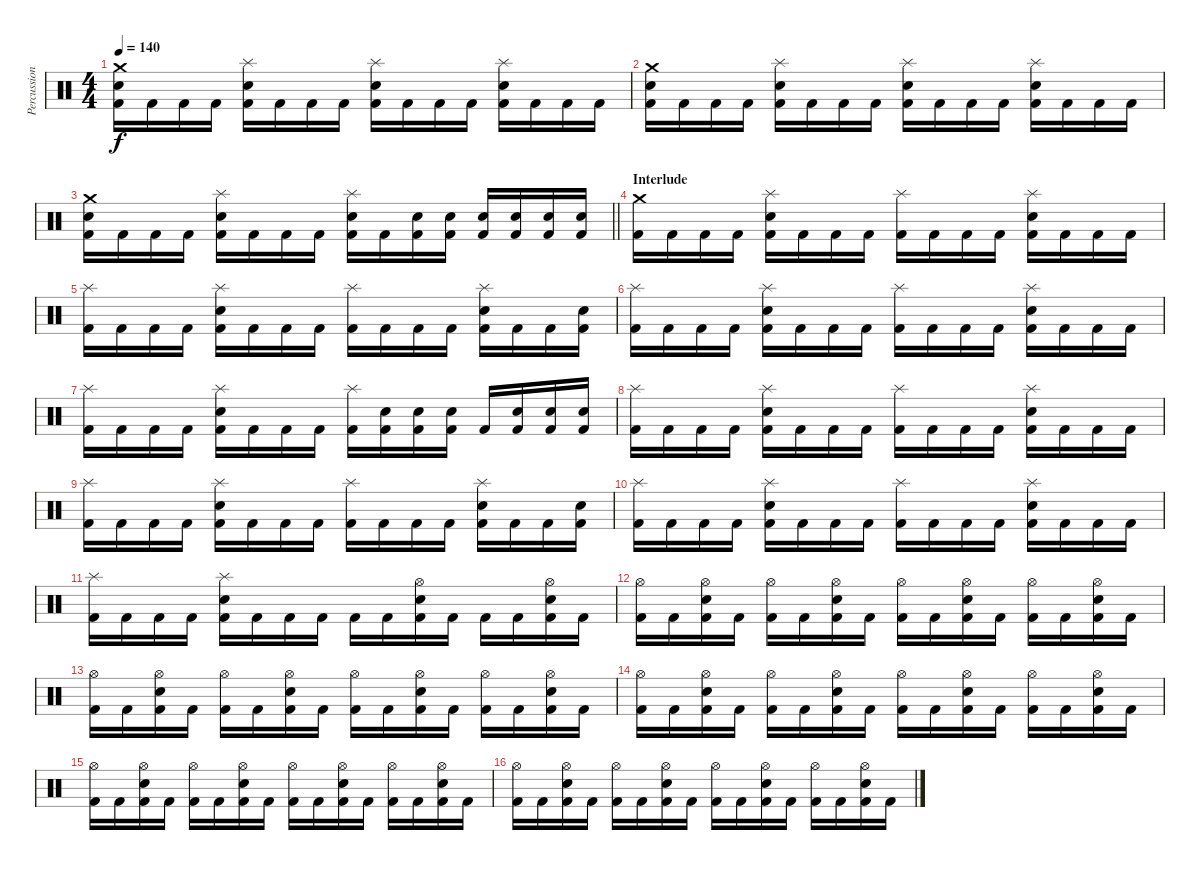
\track ("Percussion" "Percussion") {instrument percussion}
\staff {score}
\articulation defaults
\ts (4 4)
\tempo 140
\clef neutral
\ks c
("Kick (hit) 2" "Electric Snare (hit)" "Crash medium (hit)").16{dy f} "Kick (hit) 2".16 "Kick (hit) 2".16 "Kick (hit) 2".16 ("Kick (hit) 2" "Electric Snare (hit)" "Splash (hit)").16 "Kick (hit) 2".16 "Kick (hit) 2".16 "Kick (hit) 2".16 ("Kick (hit) 2" "Electric Snare (hit)" "Splash (hit)").16 "Kick (hit) 2".16 "Kick (hit) 2".16 "Kick (hit) 2".16 ("Kick (hit) 2" "Electric Snare (hit)" "Splash (hit)").16 "Kick (hit) 2".16 "Kick (hit) 2".16 "Kick (hit) 2".16 |
("Kick (hit) 2" "Electric Snare (hit)" "Crash medium (hit)").16 "Kick (hit) 2".16 "Kick (hit) 2".16 "Kick (hit) 2".16 ("Kick (hit) 2" "Electric Snare (hit)" "Splash (hit)").16 "Kick (hit) 2".16 "Kick (hit) 2".16 "Kick (hit) 2".16 ("Kick (hit) 2" "Electric Snare (hit)" "Splash (hit)").16 "Kick (hit) 2".16 "Kick (hit) 2".16 "Kick (hit) 2".16 ("Kick (hit) 2" "Electric Snare (hit)" "Splash (hit)").16 "Kick (hit) 2".16 "Kick (hit) 2".16 "Kick (hit) 2".16 |
\barLineRight lightlight
("Kick (hit) 2" "Electric Snare (hit)" "Crash medium (hit)").16 "Kick (hit) 2".16 "Kick (hit) 2".16 "Kick (hit) 2".16 ("Kick (hit) 2" "Electric Snare (hit)" "Splash (hit)").16 "Kick (hit) 2".16 "Kick (hit) 2".16 "Kick (hit) 2".16 ("Kick (hit) 2" "Electric Snare (hit)" "Splash (hit)").16 "Kick (hit) 2".16 ("Kick (hit) 2" "Electric Snare (hit)").16 ("Kick (hit) 2" "Electric Snare (hit)").16 ("Kick (hit) 2" "Electric Snare (hit)").16 ("Kick (hit) 2" "Electric Snare (hit)").16 ("Kick (hit) 2" "Electric Snare (hit)").16 ("Kick (hit) 2" "Electric Snare (hit)").16 |
\section ("" "Interlude")
("Kick (hit) 2" "Crash medium (hit)").16 "Kick (hit) 2".16 "Kick (hit) 2".16 "Kick (hit) 2".16 ("Kick (hit) 2" "Electric Snare (hit)" "Splash (hit)").16 "Kick (hit) 2".16 "Kick (hit) 2".16 "Kick (hit) 2".16 ("Kick (hit) 2" "Splash (hit)").16 "Kick (hit) 2".16 "Kick (hit) 2".16 "Kick (hit) 2".16 ("Kick (hit) 2" "Electric Snare (hit)" "Splash (hit)").16 "Kick (hit) 2".16 "Kick (hit) 2".16 "Kick (hit) 2".16 |
("Kick (hit) 2" "Splash (hit)").16 "Kick (hit) 2".16 "Kick (hit) 2".16 "Kick (hit) 2".16 ("Kick (hit) 2" "Electric Snare (hit)" "Splash (hit)").16 "Kick (hit) 2".16 "Kick (hit) 2".16 "Kick (hit) 2".16 ("Kick (hit) 2" "Splash (hit)").16 "Kick (hit) 2".16 "Kick (hit) 2".16 "Kick (hit) 2".16 ("Kick (hit) 2" "Electric Snare (hit)" "Splash (hit)").16 "Kick (hit) 2".16 "Kick (hit) 2".16 ("Kick (hit) 2" "Electric Snare (hit)").16 |
("Kick (hit) 2" "Splash (hit)").16 "Kick (hit) 2".16 "Kick (hit) 2".16 "Kick (hit) 2".16 ("Kick (hit) 2" "Electric Snare (hit)" "Splash (hit)").16 "Kick (hit) 2".16 "Kick (hit) 2".16 "Kick (hit) 2".16 ("Kick (hit) 2" "Splash (hit)").16 "Kick (hit) 2".16 "Kick (hit) 2".16 "Kick (hit) 2".16 ("Kick (hit) 2" "Electric Snare (hit)" "Splash (hit)").16 "Kick (hit) 2".16 "Kick (hit) 2".16 "Kick (hit) 2".16 |
("Kick (hit) 2" "Splash (hit)").16 "Kick (hit) 2".16 "Kick (hit) 2".16 "Kick (hit) 2".16 ("Kick (hit) 2" "Electric Snare (hit)" "Splash (hit)").16 "Kick (hit) 2".16 "Kick (hit) 2".16 "Kick (hit) 2".16 ("Kick (hit) 2" "Splash (hit)").16 ("Kick (hit) 2" "Electric Snare (hit)").16 ("Kick (hit) 2" "Electric Snare (hit)").16 ("Kick (hit) 2" "Electric Snare (hit)").16 "Kick (hit) 2".16 ("Kick (hit) 2" "Electric Snare (hit)").16 ("Kick (hit) 2" "Electric Snare (hit)").16 ("Kick (hit) 2" "Electric Snare (hit)").16 |
("Kick (hit) 2" "Splash (hit)").16 "Kick (hit) 2".16 "Kick (hit) 2".16 "Kick (hit) 2".16 ("Kick (hit) 2" "Electric Snare (hit)" "Splash (hit)").16 "Kick (hit) 2".16 "Kick (hit) 2".16 "Kick (hit) 2".16 ("Kick (hit) 2" "Splash (hit)").16 "Kick (hit) 2".16 "Kick (hit) 2".16 "Kick (hit) 2".16 ("Kick (hit) 2" "Electric Snare (hit)" "Splash (hit)").16 "Kick (hit) 2".16 "Kick (hit) 2".16 "Kick (hit) 2".16 |
("Kick (hit) 2" "Splash (hit)").16 "Kick (hit) 2".16 "Kick (hit) 2".16 "Kick (hit) 2".16 ("Kick (hit) 2" "Electric Snare (hit)" "Splash (hit)").16 "Kick (hit) 2".16 "Kick (hit) 2".16 "Kick (hit) 2".16 ("Kick (hit) 2" "Splash (hit)").16 "Kick (hit) 2".16 "Kick (hit) 2".16 "Kick (hit) 2".16 ("Kick (hit) 2" "Electric Snare (hit)" "Splash (hit)").16 "Kick (hit) 2".16 "Kick (hit) 2".16 ("Kick (hit) 2" "Electric Snare (hit)").16 |
("Kick (hit) 2" "Splash (hit)").16 "Kick (hit) 2".16 "Kick (hit) 2".16 "Kick (hit) 2".16 ("Kick (hit) 2" "Electric Snare (hit)" "Splash (hit)").16 "Kick (hit) 2".16 "Kick (hit) 2".16 "Kick (hit) 2".16 ("Kick (hit) 2" "Splash (hit)").16 "Kick (hit) 2".16 "Kick (hit) 2".16 "Kick (hit) 2".16 ("Kick (hit) 2" "Electric Snare (hit)" "Splash (hit)").16 "Kick (hit) 2".16 "Kick (hit) 2".16 "Kick (hit) 2".16 |
("Kick (hit) 2" "Splash (hit)").16 "Kick (hit) 2".16 "Kick (hit) 2".16 "Kick (hit) 2".16 ("Kick (hit) 2" "Electric Snare (hit)" "Splash (hit)").16 "Kick (hit) 2".16 "Kick (hit) 2".16 "Kick (hit) 2".16 "Kick (hit) 2".16 "Kick (hit) 2".16 ("Kick (hit) 2" "Electric Snare (hit)" "Hi-Hat (open)").16 "Kick (hit) 2".16 "Kick (hit) 2".16 "Kick (hit) 2".16 ("Kick (hit) 2" "Electric Snare (hit)" "Hi-Hat (open)").16 "Kick (hit) 2".16 |
("Kick (hit) 2" "Hi-Hat (open)").16 "Kick (hit) 2".16 ("Kick (hit) 2" "Electric Snare (hit)" "Hi-Hat (open)").16 "Kick (hit) 2".16 ("Kick (hit) 2" "Hi-Hat (open)").16 "Kick (hit) 2".16 ("Kick (hit) 2" "Electric Snare (hit)" "Hi-Hat (open)").16 "Kick (hit) 2".16 ("Kick (hit) 2" "Hi-Hat (open)").16 "Kick (hit) 2".16 ("Kick (hit) 2" "Electric Snare (hit)" "Hi-Hat (open)").16 "Kick (hit) 2".16 ("Kick (hit) 2" "Hi-Hat (open)").16 "Kick (hit) 2".16 ("Kick (hit) 2" "Electric Snare (hit)" "Hi-Hat (open)").16 "Kick (hit) 2".16 |
("Kick (hit) 2" "Hi-Hat (open)").16 "Kick (hit) 2".16 ("Kick (hit) 2" "Electric Snare (hit)" "Hi-Hat (open)").16 "Kick (hit) 2".16 ("Kick (hit) 2" "Hi-Hat (open)").16 "Kick (hit) 2".16 ("Kick (hit) 2" "Electric Snare (hit)" "Hi-Hat (open)").16 "Kick (hit) 2".16 ("Kick (hit) 2" "Hi-Hat (open)").16 "Kick (hit) 2".16 ("Kick (hit) 2" "Electric Snare (hit)" "Hi-Hat (open)").16 "Kick (hit) 2".16 ("Kick (hit) 2" "Hi-Hat (open)").16 "Kick (hit) 2".16 ("Kick (hit) 2" "Electric Snare (hit)" "Hi-Hat (open)").16 "Kick (hit) 2".16 |
("Kick (hit) 2" "Hi-Hat (open)").16 "Kick (hit) 2".16 ("Kick (hit) 2" "Electric Snare (hit)" "Hi-Hat (open)").16 "Kick (hit) 2".16 ("Kick (hit) 2" "Hi-Hat (open)").16 "Kick (hit) 2".16 ("Kick (hit) 2" "Electric Snare (hit)" "Hi-Hat (open)").16 "Kick (hit) 2".16 ("Kick (hit) 2" "Hi-Hat (open)").16 "Kick (hit) 2".16 ("Kick (hit) 2" "Electric Snare (hit)" "Hi-Hat (open)").16 "Kick (hit) 2".16 ("Kick (hit) 2" "Hi-Hat (open)").16 "Kick (hit) 2".16 ("Kick (hit) 2" "Electric Snare (hit)" "Hi-Hat (open)").16 "Kick (hit) 2".16 |
("Kick (hit) 2" "Hi-Hat (open)").16 "Kick (hit) 2".16 ("Kick (hit) 2" "Electric Snare (hit)" "Hi-Hat (open)").16 "Kick (hit) 2".16 ("Kick (hit) 2" "Hi-Hat (open)").16 "Kick (hit) 2".16 ("Kick (hit) 2" "Electric Snare (hit)" "Hi-Hat (open)").16 "Kick (hit) 2".16 ("Kick (hit) 2" "Hi-Hat (open)").16 "Kick (hit) 2".16 ("Kick (hit) 2" "Electric Snare (hit)" "Hi-Hat (open)").16 "Kick (hit) 2".16 ("Kick (hit) 2" "Hi-Hat (open)").16 "Kick (hit) 2".16 ("Kick (hit) 2" "Electric Snare (hit)" "Hi-Hat (open)").16 "Kick (hit) 2".16 |
("Kick (hit) 2" "Hi-Hat (open)").16 "Kick (hit) 2".16 ("Kick (hit) 2" "Electric Snare (hit)" "Hi-Hat (open)").16 "Kick (hit) 2".16 ("Kick (hit) 2" "Hi-Hat (open)").16 "Kick (hit) 2".16 ("Kick (hit) 2" "Electric Snare (hit)" "Hi-Hat (open)").16 "Kick (hit) 2".16 ("Kick (hit) 2" "Hi-Hat (open)").16 "Kick (hit) 2".16 ("Kick (hit) 2" "Electric Snare (hit)" "Hi-Hat (open)").16 "Kick (hit) 2".16 ("Kick (hit) 2" "Hi-Hat (open)").16 "Kick (hit) 2".16 ("Kick (hit) 2" "Electric Snare (hit)" "Hi-Hat (open)").16 "Kick (hit) 2".16
